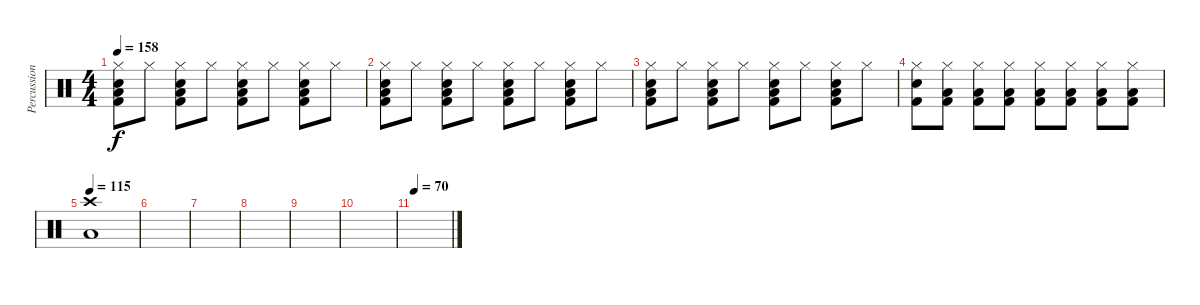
\track ("Percussions" "Percussion") {instrument percussion}
\staff {score}
\articulation defaults
\ts (4 4)
\tempo 158
\clef neutral
\ks c
("Hi-Hat (closed)" "Snare (hit) 2" "Low Floor Tom (hit)" "Kick (hit) 2").8{dy f} "Hi-Hat (closed)".8 ("Hi-Hat (closed)" "Snare (hit) 2" "Low Floor Tom (hit)" "Kick (hit) 2").8 "Hi-Hat (closed)".8 ("Hi-Hat (closed)" "Snare (hit) 2" "Low Floor Tom (hit)" "Kick (hit) 2").8 "Hi-Hat (closed)".8 ("Hi-Hat (closed)" "Snare (hit) 2" "Low Floor Tom (hit)" "Kick (hit) 2").8 "Hi-Hat (closed)".8 |
("Hi-Hat (closed)" "Snare (hit) 2" "Low Floor Tom (hit)" "Kick (hit) 2").8 "Hi-Hat (closed)".8 ("Hi-Hat (closed)" "Snare (hit) 2" "Low Floor Tom (hit)" "Kick (hit) 2").8 "Hi-Hat (closed)".8 ("Hi-Hat (closed)" "Snare (hit) 2" "Low Floor Tom (hit)" "Kick (hit) 2").8 "Hi-Hat (closed)".8 ("Hi-Hat (closed)" "Snare (hit) 2" "Low Floor Tom (hit)" "Kick (hit) 2").8 "Hi-Hat (closed)".8 |
("Hi-Hat (closed)" "Snare (hit) 2" "Low Floor Tom (hit)" "Kick (hit) 2").8 "Hi-Hat (closed)".8 ("Hi-Hat (closed)" "Snare (hit) 2" "Low Floor Tom (hit)" "Kick (hit) 2").8 "Hi-Hat (closed)".8 ("Hi-Hat (closed)" "Snare (hit) 2" "Low Floor Tom (hit)" "Kick (hit) 2").8 "Hi-Hat (closed)".8 ("Hi-Hat (closed)" "Snare (hit) 2" "Low Floor Tom (hit)" "Kick (hit) 2").8 "Hi-Hat (closed)".8 |
("Hi-Hat (closed)" "Snare (hit) 2" "Kick (hit) 2").8 ("Hi-Hat (closed)" "Low Floor Tom (hit)" "Kick (hit) 2").8 ("Hi-Hat (closed)" "Low Floor Tom (hit)" "Kick (hit) 2").8 ("Hi-Hat (closed)" "Low Floor Tom (hit)" "Kick (hit) 2").8 ("Hi-Hat (closed)" "Low Floor Tom (hit)" "Kick (hit) 2").8 ("Hi-Hat (closed)" "Low Floor Tom (hit)" "Kick (hit) 2").8 ("Hi-Hat (closed)" "Low Floor Tom (hit)" "Kick (hit) 2").8 ("Hi-Hat (closed)" "Low Floor Tom (hit)" "Kick (hit) 2").8 |
\tempo 115
("Crash high (hit)" "Low Floor Tom (hit)").1 |
|
|
|
|
|
\tempo 70
